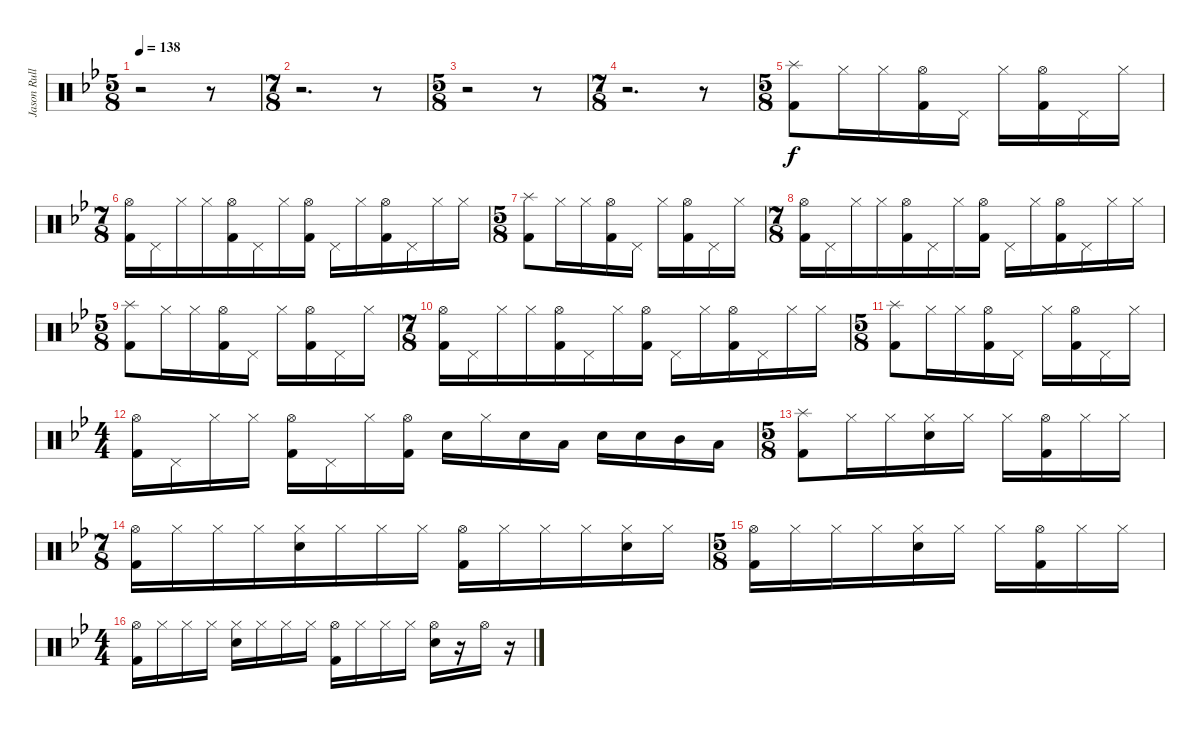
\track ("Jason Rullo (drums)" "Jason Rull") {instrument percussion}
\staff {score}
\articulation defaults
\ts (5 8)
\tempo 138
\clef neutral
\ks gminor
r.2{dy f} r.8 |
\ts (7 8)
r.2{d} r.8 |
\ts (5 8)
r.2 r.8 |
\ts (7 8)
r.2{d} r.8 |
\ts (5 8)
("Splash (hit)" "Kick (hit) 2").8 "Hi-Hat (closed)".16 "Hi-Hat (closed)".16 ("Hi-Hat (open)" "Kick (hit) 2").16 "Pedal Hi-Hat (hit)".16 "Hi-Hat (closed)".16 ("Hi-Hat (open)" "Kick (hit) 2").16 "Pedal Hi-Hat (hit)".16 "Hi-Hat (closed)".16 |
\ts (7 8)
("Hi-Hat (open)" "Kick (hit) 2").16 "Pedal Hi-Hat (hit)".16 "Hi-Hat (closed)".16 "Hi-Hat (closed)".16 ("Hi-Hat (open)" "Kick (hit) 2").16 "Pedal Hi-Hat (hit)".16 "Hi-Hat (closed)".16 ("Hi-Hat (open)" "Kick (hit) 2").16 "Pedal Hi-Hat (hit)".16 "Hi-Hat (closed)".16 ("Hi-Hat (open)" "Kick (hit) 2").16 "Pedal Hi-Hat (hit)".16 "Hi-Hat (closed)".16 "Hi-Hat (closed)".16 |
\ts (5 8)
("Splash (hit)" "Kick (hit) 2").8 "Hi-Hat (closed)".16 "Hi-Hat (closed)".16 ("Hi-Hat (open)" "Kick (hit) 2").16 "Pedal Hi-Hat (hit)".16 "Hi-Hat (closed)".16 ("Hi-Hat (open)" "Kick (hit) 2").16 "Pedal Hi-Hat (hit)".16 "Hi-Hat (closed)".16 |
\ts (7 8)
("Hi-Hat (open)" "Kick (hit) 2").16 "Pedal Hi-Hat (hit)".16 "Hi-Hat (closed)".16 "Hi-Hat (closed)".16 ("Hi-Hat (open)" "Kick (hit) 2").16 "Pedal Hi-Hat (hit)".16 "Hi-Hat (closed)".16 ("Hi-Hat (open)" "Kick (hit) 2").16 "Pedal Hi-Hat (hit)".16 "Hi-Hat (closed)".16 ("Hi-Hat (open)" "Kick (hit) 2").16 "Pedal Hi-Hat (hit)".16 "Hi-Hat (closed)".16 "Hi-Hat (closed)".16 |
\ts (5 8)
("Splash (hit)" "Kick (hit) 2").8 "Hi-Hat (closed)".16 "Hi-Hat (closed)".16 ("Hi-Hat (open)" "Kick (hit) 2").16 "Pedal Hi-Hat (hit)".16 "Hi-Hat (closed)".16 ("Hi-Hat (open)" "Kick (hit) 2").16 "Pedal Hi-Hat (hit)".16 "Hi-Hat (closed)".16 |
\ts (7 8)
("Hi-Hat (open)" "Kick (hit) 2").16 "Pedal Hi-Hat (hit)".16 "Hi-Hat (closed)".16 "Hi-Hat (closed)".16 ("Hi-Hat (open)" "Kick (hit) 2").16 "Pedal Hi-Hat (hit)".16 "Hi-Hat (closed)".16 ("Hi-Hat (open)" "Kick (hit) 2").16 "Pedal Hi-Hat (hit)".16 "Hi-Hat (closed)".16 ("Hi-Hat (open)" "Kick (hit) 2").16 "Pedal Hi-Hat (hit)".16 "Hi-Hat (closed)".16 "Hi-Hat (closed)".16 |
\ts (5 8)
("Splash (hit)" "Kick (hit) 2").8 "Hi-Hat (closed)".16 "Hi-Hat (closed)".16 ("Hi-Hat (open)" "Kick (hit) 2").16 "Pedal Hi-Hat (hit)".16 "Hi-Hat (closed)".16 ("Hi-Hat (open)" "Kick (hit) 2").16 "Pedal Hi-Hat (hit)".16 "Hi-Hat (closed)".16 |
\ts (4 4)
("Hi-Hat (open)" "Kick (hit) 2").16 "Pedal Hi-Hat (hit)".16 "Hi-Hat (closed)".16 "Hi-Hat (closed)".16 ("Hi-Hat (open)" "Kick (hit) 2").16 "Pedal Hi-Hat (hit)".16 "Hi-Hat (closed)".16 ("Hi-Hat (open)" "Kick (hit) 2").16 "Electric Snare (hit)".16 "Hi-Hat (closed)".16 "Electric Snare (hit)".16 "Low Tom (hit)".16 "Electric Snare (hit)".16 "Electric Snare (hit)".16 "Mid Tom (hit)".16 "Low Tom (hit)".16 |
\ts (5 8)
("Splash (hit)" "Kick (hit) 2").8 "Hi-Hat (closed)".16 "Hi-Hat (closed)".16 ("Hi-Hat (closed)" "Electric Snare (hit)").16 "Hi-Hat (closed)".16 "Hi-Hat (closed)".16 ("Hi-Hat (open)" "Kick (hit) 2").16 "Hi-Hat (closed)".16 "Hi-Hat (closed)".16 |
\ts (7 8)
("Hi-Hat (open)" "Kick (hit) 2").16 "Hi-Hat (closed)".16 "Hi-Hat (closed)".16 "Hi-Hat (closed)".16 ("Hi-Hat (closed)" "Electric Snare (hit)").16 "Hi-Hat (closed)".16 "Hi-Hat (closed)".16 "Hi-Hat (closed)".16 ("Hi-Hat (open)" "Kick (hit) 2").16 "Hi-Hat (closed)".16 "Hi-Hat (closed)".16 "Hi-Hat (closed)".16 ("Hi-Hat (closed)" "Electric Snare (hit)").16 "Hi-Hat (closed)".16 |
\ts (5 8)
("Hi-Hat (open)" "Kick (hit) 2").16 "Hi-Hat (closed)".16 "Hi-Hat (closed)".16 "Hi-Hat (closed)".16 ("Hi-Hat (closed)" "Electric Snare (hit)").16 "Hi-Hat (closed)".16 "Hi-Hat (closed)".16 ("Hi-Hat (open)" "Kick (hit) 2").16 "Hi-Hat (closed)".16 "Hi-Hat (closed)".16 |
\ts (4 4)
("Hi-Hat (open)" "Kick (hit) 2").16 "Hi-Hat (closed)".16 "Hi-Hat (closed)".16 "Hi-Hat (closed)".16 ("Hi-Hat (closed)" "Electric Snare (hit)").16 "Hi-Hat (closed)".16 "Hi-Hat (closed)".16 "Hi-Hat (closed)".16 ("Hi-Hat (open)" "Kick (hit) 2").16 "Hi-Hat (closed)".16 "Hi-Hat (closed)".16 "Hi-Hat (closed)".16 ("Hi-Hat (open)" "Electric Snare (hit)").16 r.16 "Hi-Hat (open)".16 r.16
